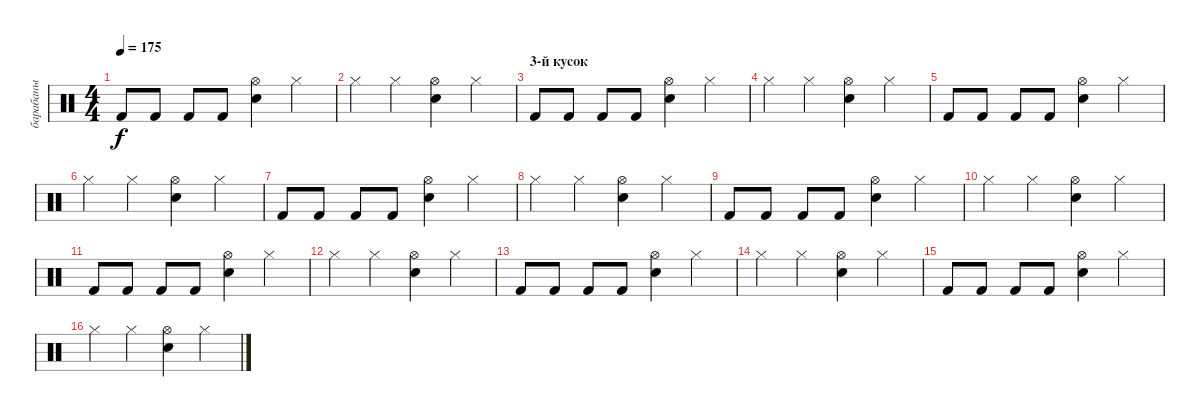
\track ("барабаны" "барабаны") {instrument percussion}
\staff {score}
\articulation defaults
\ts (4 4)
\tempo 175
\clef neutral
\ks c "Kick (hit) 2".8{dy f} "Kick (hit) 2".8 "Kick (hit) 2".8 "Kick (hit) 2".8
("Hi-Hat (open)" "Snare (hit) 2").4 "Hi-Hat (closed)".4 |
"Hi-Hat (closed)".4 "Hi-Hat (closed)".4 ("Hi-Hat (open)" "Snare (hit) 2").4 "Hi-Hat (closed)".4 |
\section ("" "3-й кусок")
"Kick (hit) 2".8 "Kick (hit) 2".8 "Kick (hit) 2".8 "Kick (hit) 2".8 ("Hi-Hat (open)" "Snare (hit) 2").4 "Hi-Hat (closed)".4 |
"Hi-Hat (closed)".4 "Hi-Hat (closed)".4 ("Hi-Hat (open)" "Snare (hit) 2").4 "Hi-Hat (closed)".4 |
"Kick (hit) 2".8 "Kick (hit) 2".8 "Kick (hit) 2".8 "Kick (hit) 2".8 ("Hi-Hat (open)" "Snare (hit) 2").4 "Hi-Hat (closed)".4 |
"Hi-Hat (closed)".4 "Hi-Hat (closed)".4 ("Hi-Hat (open)" "Snare (hit) 2").4 "Hi-Hat (closed)".4 |
"Kick (hit) 2".8 "Kick (hit) 2".8 "Kick (hit) 2".8 "Kick (hit) 2".8 ("Hi-Hat (open)" "Snare (hit) 2").4 "Hi-Hat (closed)".4 |
"Hi-Hat (closed)".4 "Hi-Hat (closed)".4 ("Hi-Hat (open)" "Snare (hit) 2").4 "Hi-Hat (closed)".4 |
"Kick (hit) 2".8 "Kick (hit) 2".8 "Kick (hit) 2".8 "Kick (hit) 2".8 ("Hi-Hat (open)" "Snare (hit) 2").4 "Hi-Hat (closed)".4 |
"Hi-Hat (closed)".4 "Hi-Hat (closed)".4 ("Hi-Hat (open)" "Snare (hit) 2").4 "Hi-Hat (closed)".4 |
"Kick (hit) 2".8 "Kick (hit) 2".8 "Kick (hit) 2".8 "Kick (hit) 2".8 ("Hi-Hat (open)" "Snare (hit) 2").4 "Hi-Hat (closed)".4 |
"Hi-Hat (closed)".4 "Hi-Hat (closed)".4 ("Hi-Hat (open)" "Snare (hit) 2").4 "Hi-Hat (closed)".4 |
"Kick (hit) 2".8 "Kick (hit) 2".8 "Kick (hit) 2".8 "Kick (hit) 2".8 ("Hi-Hat (open)" "Snare (hit) 2").4 "Hi-Hat (closed)".4 |
"Hi-Hat (closed)".4 "Hi-Hat (closed)".4 ("Hi-Hat (open)" "Snare (hit) 2").4 "Hi-Hat (closed)".4 |
"Kick (hit) 2".8 "Kick (hit) 2".8 "Kick (hit) 2".8 "Kick (hit) 2".8 ("Hi-Hat (open)" "Snare (hit) 2").4 "Hi-Hat (closed)".4 |
"Hi-Hat (closed)".4 "Hi-Hat (closed)".4 ("Hi-Hat (open)" "Snare (hit) 2").4 "Hi-Hat (closed)".4
